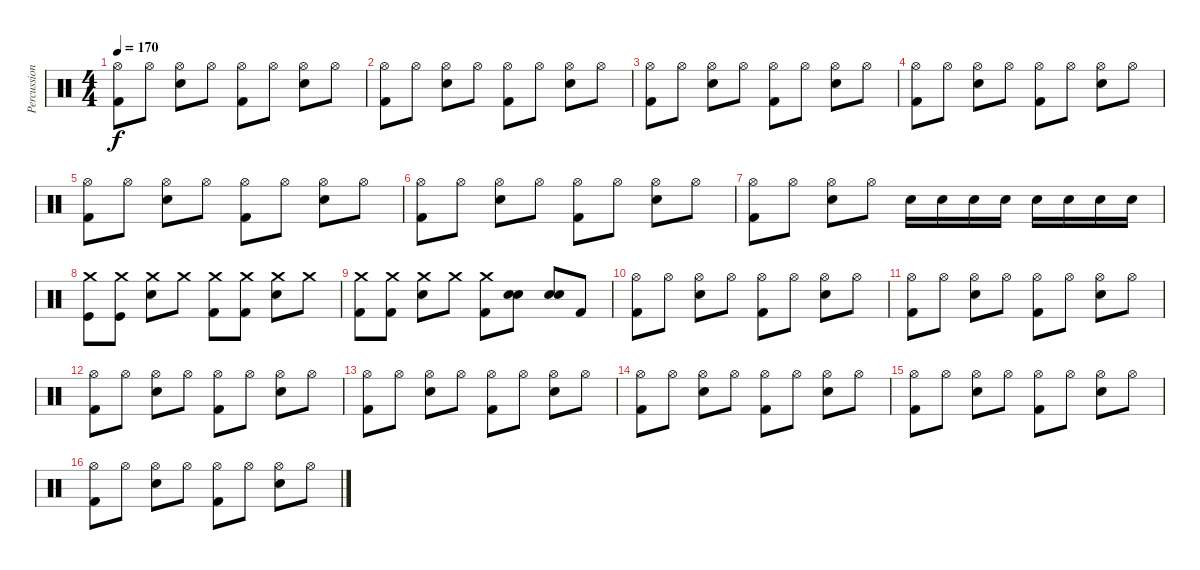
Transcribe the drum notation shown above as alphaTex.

\track ("Percussion" "Percussion") {instrument percussion}
\staff {score}
\articulation defaults
\ts (4 4)
\tempo 170
\clef neutral
\ks c
("Hi-Hat (open)" "Kick (hit) 2").8{dy f} "Hi-Hat (open)".8 ("Hi-Hat (open)" "Snare (hit) 2").8 "Hi-Hat (open)".8 ("Hi-Hat (open)" "Kick (hit) 2").8 "Hi-Hat (open)".8 ("Hi-Hat (open)" "Snare (hit) 2").8 "Hi-Hat (open)".8 |
("Hi-Hat (open)" "Kick (hit) 2").8 "Hi-Hat (open)".8 ("Hi-Hat (open)" "Snare (hit) 2").8 "Hi-Hat (open)".8 ("Hi-Hat (open)" "Kick (hit) 2").8 "Hi-Hat (open)".8 ("Hi-Hat (open)" "Snare (hit) 2").8 "Hi-Hat (open)".8 |
("Hi-Hat (open)" "Kick (hit) 2").8 "Hi-Hat (open)".8 ("Hi-Hat (open)" "Snare (hit) 2").8 "Hi-Hat (open)".8 ("Hi-Hat (open)" "Kick (hit) 2").8 "Hi-Hat (open)".8 ("Hi-Hat (open)" "Snare (hit) 2").8 "Hi-Hat (open)".8 |
("Hi-Hat (open)" "Kick (hit) 2").8 "Hi-Hat (open)".8 ("Hi-Hat (open)" "Snare (hit) 2").8 "Hi-Hat (open)".8 ("Hi-Hat (open)" "Kick (hit) 2").8 "Hi-Hat (open)".8 ("Hi-Hat (open)" "Snare (hit) 2").8 "Hi-Hat (open)".8 |
("Hi-Hat (open)" "Kick (hit) 2").8 "Hi-Hat (open)".8 ("Hi-Hat (open)" "Snare (hit) 2").8 "Hi-Hat (open)".8 ("Hi-Hat (open)" "Kick (hit) 2").8 "Hi-Hat (open)".8 ("Hi-Hat (open)" "Snare (hit) 2").8 "Hi-Hat (open)".8 |
("Hi-Hat (open)" "Kick (hit) 2").8 "Hi-Hat (open)".8 ("Hi-Hat (open)" "Snare (hit) 2").8 "Hi-Hat (open)".8 ("Hi-Hat (open)" "Kick (hit) 2").8 "Hi-Hat (open)".8 ("Hi-Hat (open)" "Snare (hit) 2").8 "Hi-Hat (open)".8 |
("Hi-Hat (open)" "Kick (hit) 2").8 "Hi-Hat (open)".8 ("Hi-Hat (open)" "Snare (hit) 2").8 "Hi-Hat (open)".8 "Snare (hit) 2".16 "Snare (hit) 2".16 "Snare (hit) 2".16 "Snare (hit) 2".16 "Snare (hit) 2".16 "Snare (hit) 2".16 "Snare (hit) 2".16 "Snare (hit) 2".16 |
("Crash medium (hit)" "Kick (hit)").8 ("Crash medium (hit)" "Kick (hit)").8 ("Crash medium (hit)" "Snare (hit) 2").8 "Crash medium (hit)".8 ("Crash medium (hit)" "Kick (hit) 2").8 ("Crash medium (hit)" "Kick (hit) 2").8 ("Crash medium (hit)" "Snare (hit) 2").8 "Crash medium (hit)".8 |
("Crash medium (hit)" "Kick (hit) 2").8 ("Crash medium (hit)" "Kick (hit) 2").8 ("Crash medium (hit)" "Snare (hit) 2").8 "Crash medium (hit)".8 ("Crash medium (hit)" "Kick (hit) 2").8 ("Snare (hit) 2" "Snare (hit) 2").8{bu 120} ("Snare (hit) 2" "Snare (hit) 2").8{bu 120} "Kick (hit) 2".8 |
("Hi-Hat (open)" "Kick (hit) 2").8 "Hi-Hat (open)".8 ("Hi-Hat (open)" "Snare (hit) 2").8 "Hi-Hat (open)".8 ("Hi-Hat (open)" "Kick (hit) 2").8 "Hi-Hat (open)".8 ("Hi-Hat (open)" "Snare (hit) 2").8 "Hi-Hat (open)".8 |
("Hi-Hat (open)" "Kick (hit) 2").8 "Hi-Hat (open)".8 ("Hi-Hat (open)" "Snare (hit) 2").8 "Hi-Hat (open)".8 ("Hi-Hat (open)" "Kick (hit) 2").8 "Hi-Hat (open)".8 ("Hi-Hat (open)" "Snare (hit) 2").8 "Hi-Hat (open)".8 |
("Hi-Hat (open)" "Kick (hit) 2").8 "Hi-Hat (open)".8 ("Hi-Hat (open)" "Snare (hit) 2").8 "Hi-Hat (open)".8 ("Hi-Hat (open)" "Kick (hit) 2").8 "Hi-Hat (open)".8 ("Hi-Hat (open)" "Snare (hit) 2").8 "Hi-Hat (open)".8 |
("Hi-Hat (open)" "Kick (hit) 2").8 "Hi-Hat (open)".8 ("Hi-Hat (open)" "Snare (hit) 2").8 "Hi-Hat (open)".8 ("Hi-Hat (open)" "Kick (hit) 2").8 "Hi-Hat (open)".8 ("Hi-Hat (open)" "Snare (hit) 2").8 "Hi-Hat (open)".8 |
("Hi-Hat (open)" "Kick (hit) 2").8 "Hi-Hat (open)".8 ("Hi-Hat (open)" "Snare (hit) 2").8 "Hi-Hat (open)".8 ("Hi-Hat (open)" "Kick (hit) 2").8 "Hi-Hat (open)".8 ("Hi-Hat (open)" "Snare (hit) 2").8 "Hi-Hat (open)".8 |
("Hi-Hat (open)" "Kick (hit) 2").8 "Hi-Hat (open)".8 ("Hi-Hat (open)" "Snare (hit) 2").8 "Hi-Hat (open)".8 ("Hi-Hat (open)" "Kick (hit) 2").8 "Hi-Hat (open)".8 ("Hi-Hat (open)" "Snare (hit) 2").8 "Hi-Hat (open)".8 |
("Hi-Hat (open)" "Kick (hit) 2").8 "Hi-Hat (open)".8 ("Hi-Hat (open)" "Snare (hit) 2").8 "Hi-Hat (open)".8 ("Hi-Hat (open)" "Kick (hit) 2").8 "Hi-Hat (open)".8 ("Hi-Hat (open)" "Snare (hit) 2").8 "Hi-Hat (open)".8
